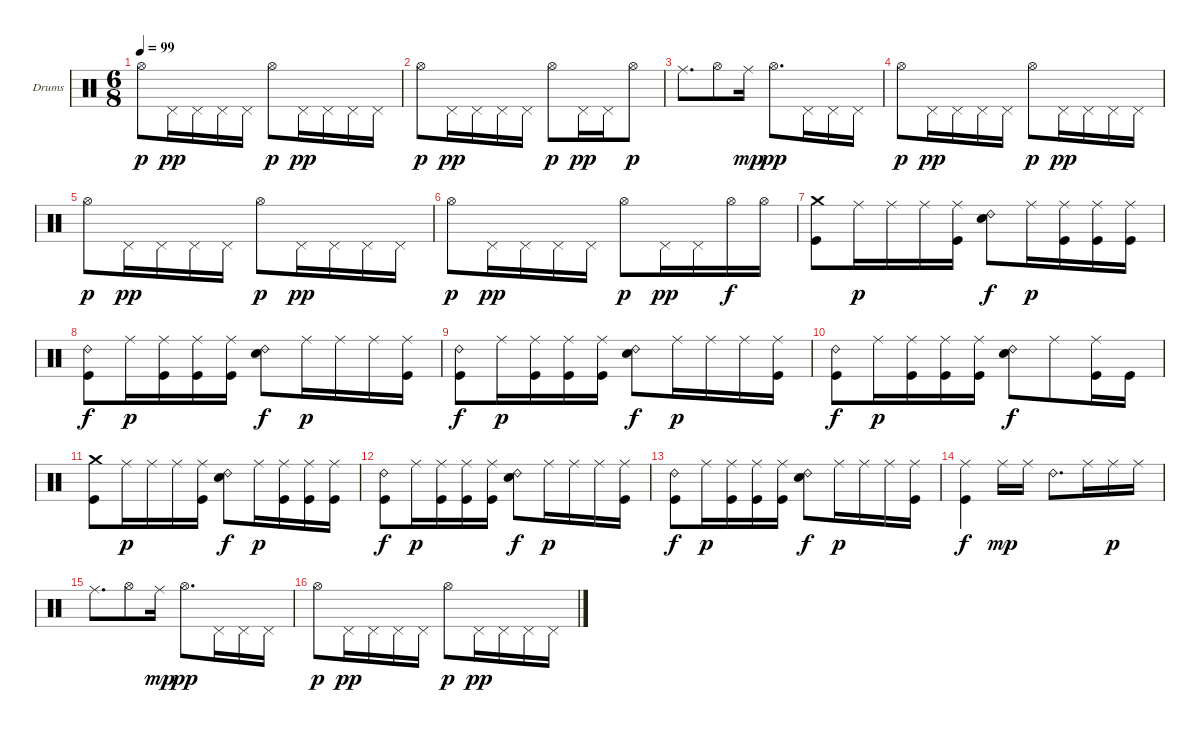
\defaultSystemsLayout 4
\bracketExtendMode nobrackets
\firstSystemTrackNameOrientation horizontal
\otherSystemsTrackNameOrientation horizontal
\track ("Dave Abbruzzese" "Drums") {solo instrument percussion}
\staff {score}
\articulation defaults
\ts (6 8)
\tempo 99
\clef neutral
\ks c "Hi-Hat (open)".8{dy p} "Pedal Hi-Hat (hit)".16{dy pp} "Pedal Hi-Hat (hit)".16 "Pedal Hi-Hat (hit)".16 "Pedal Hi-Hat (hit)".16 "Hi-Hat (open)".8{dy p} "Pedal Hi-Hat (hit)".16{dy pp} "Pedal Hi-Hat (hit)".16 "Pedal Hi-Hat (hit)".16 "Pedal Hi-Hat (hit)".16
|
"Hi-Hat (open)".8{dy p} "Pedal Hi-Hat (hit)".16{dy pp} "Pedal Hi-Hat (hit)".16 "Pedal Hi-Hat (hit)".16 "Pedal Hi-Hat (hit)".16 "Hi-Hat (open)".8{dy p} "Pedal Hi-Hat (hit)".16{dy pp} "Pedal Hi-Hat (hit)".16 "Hi-Hat (open)".8{dy p} |
"Ride (middle)".8{d} "Hi-Hat (open)".8 "Ride (middle)".16{dy mp} "Hi-Hat (open)".8{d dy pp} "Pedal Hi-Hat (hit)".16 "Pedal Hi-Hat (hit)".16 "Pedal Hi-Hat (hit)".16 |
"Hi-Hat (open)".8{dy p} "Pedal Hi-Hat (hit)".16{dy pp} "Pedal Hi-Hat (hit)".16 "Pedal Hi-Hat (hit)".16 "Pedal Hi-Hat (hit)".16 "Hi-Hat (open)".8{dy p} "Pedal Hi-Hat (hit)".16{dy pp} "Pedal Hi-Hat (hit)".16 "Pedal Hi-Hat (hit)".16 "Pedal Hi-Hat (hit)".16 |
"Hi-Hat (open)".8{dy p} "Pedal Hi-Hat (hit)".16{dy pp} "Pedal Hi-Hat (hit)".16 "Pedal Hi-Hat (hit)".16 "Pedal Hi-Hat (hit)".16 "Hi-Hat (open)".8{dy p} "Pedal Hi-Hat (hit)".16{dy pp} "Pedal Hi-Hat (hit)".16 "Pedal Hi-Hat (hit)".16 "Pedal Hi-Hat (hit)".16 |
"Hi-Hat (open)".8{dy p} "Pedal Hi-Hat (hit)".16{dy pp} "Pedal Hi-Hat (hit)".16 "Pedal Hi-Hat (hit)".16 "Pedal Hi-Hat (hit)".16 "Hi-Hat (open)".8{dy p} "Pedal Hi-Hat (hit)".16{dy pp} "Pedal Hi-Hat (hit)".16 "Hi-Hat (open)".16{dy f} "Hi-Hat (open)".16 |
("Crash medium (hit)" "Kick (hit)").8 "Ride (middle)".16{dy p} "Ride (middle)".16 "Ride (middle)".16 ("Ride (middle)" "Kick (hit)").16 ("Ride (bell) 2" "Snare (hit) 2").8{dy f} "Ride (middle)".16{dy p} ("Ride (middle)" "Kick (hit)").16 ("Ride (middle)" "Kick (hit)").16 ("Ride (middle)" "Kick (hit)").16 |
("Ride (bell) 2" "Kick (hit)").8{dy f} "Ride (middle)".16{dy p} ("Ride (middle)" "Kick (hit)").16 ("Ride (middle)" "Kick (hit)").16 ("Ride (middle)" "Kick (hit)").16 ("Ride (bell) 2" "Snare (hit) 2").8{dy f} "Ride (middle)".16{dy p} "Ride (middle)".16 "Ride (middle)".16 ("Ride (middle)" "Kick (hit)").16 |
("Ride (bell) 2" "Kick (hit)").8{dy f} "Ride (middle)".16{dy p} ("Ride (middle)" "Kick (hit)").16 ("Ride (middle)" "Kick (hit)").16 ("Ride (middle)" "Kick (hit)").16 ("Ride (bell) 2" "Snare (hit) 2").8{dy f} "Ride (middle)".16{dy p} "Ride (middle)".16 "Ride (middle)".16 ("Ride (middle)" "Kick (hit)").16 |
("Ride (bell) 2" "Kick (hit)").8{dy f} "Ride (middle)".16{dy p} ("Ride (middle)" "Kick (hit)").16 ("Ride (middle)" "Kick (hit)").16 ("Ride (middle)" "Kick (hit)").16 ("Ride (bell) 2" "Snare (hit) 2").8{dy f} "Ride (middle)".8 ("Ride (middle)" "Kick (hit)").16 "Kick (hit)".16 |
("Crash medium (hit)" "Kick (hit)").8 "Ride (middle)".16{dy p} "Ride (middle)".16 "Ride (middle)".16 ("Ride (middle)" "Kick (hit)").16 ("Ride (bell) 2" "Snare (hit) 2").8{dy f} "Ride (middle)".16{dy p} ("Ride (middle)" "Kick (hit)").16 ("Ride (middle)" "Kick (hit)").16 ("Ride (middle)" "Kick (hit)").16 |
("Ride (bell) 2" "Kick (hit)").8{dy f} "Ride (middle)".16{dy p} ("Ride (middle)" "Kick (hit)").16 ("Ride (middle)" "Kick (hit)").16 ("Ride (middle)" "Kick (hit)").16 ("Ride (bell) 2" "Snare (hit) 2").8{dy f} "Ride (middle)".16{dy p} "Ride (middle)".16 "Ride (middle)".16 ("Ride (middle)" "Kick (hit)").16 |
("Ride (bell) 2" "Kick (hit)").8{dy f} "Ride (middle)".16{dy p} ("Ride (middle)" "Kick (hit)").16 ("Ride (middle)" "Kick (hit)").16 ("Ride (middle)" "Kick (hit)").16 ("Ride (bell) 2" "Snare (hit) 2").8{dy f} "Ride (middle)".16{dy p} "Ride (middle)".16 "Ride (middle)".16 ("Ride (middle)" "Kick (hit)").16 |
("Ride (middle)" "Kick (hit)").4{dy f} "Ride (middle)".16{dy mp} "Ride (middle)".16 "Ride (bell) 2".8{d} "Ride (middle)".16 "Ride (middle)".16{dy p} "Ride (middle)".16 |
"Ride (middle)".8{d} "Hi-Hat (open)".8 "Ride (middle)".16{dy mp} "Hi-Hat (open)".8{d dy pp} "Pedal Hi-Hat (hit)".16 "Pedal Hi-Hat (hit)".16 "Pedal Hi-Hat (hit)".16 |
"Hi-Hat (open)".8{dy p} "Pedal Hi-Hat (hit)".16{dy pp} "Pedal Hi-Hat (hit)".16 "Pedal Hi-Hat (hit)".16 "Pedal Hi-Hat (hit)".16 "Hi-Hat (open)".8{dy p} "Pedal Hi-Hat (hit)".16{dy pp} "Pedal Hi-Hat (hit)".16 "Pedal Hi-Hat (hit)".16 "Pedal Hi-Hat (hit)".16
